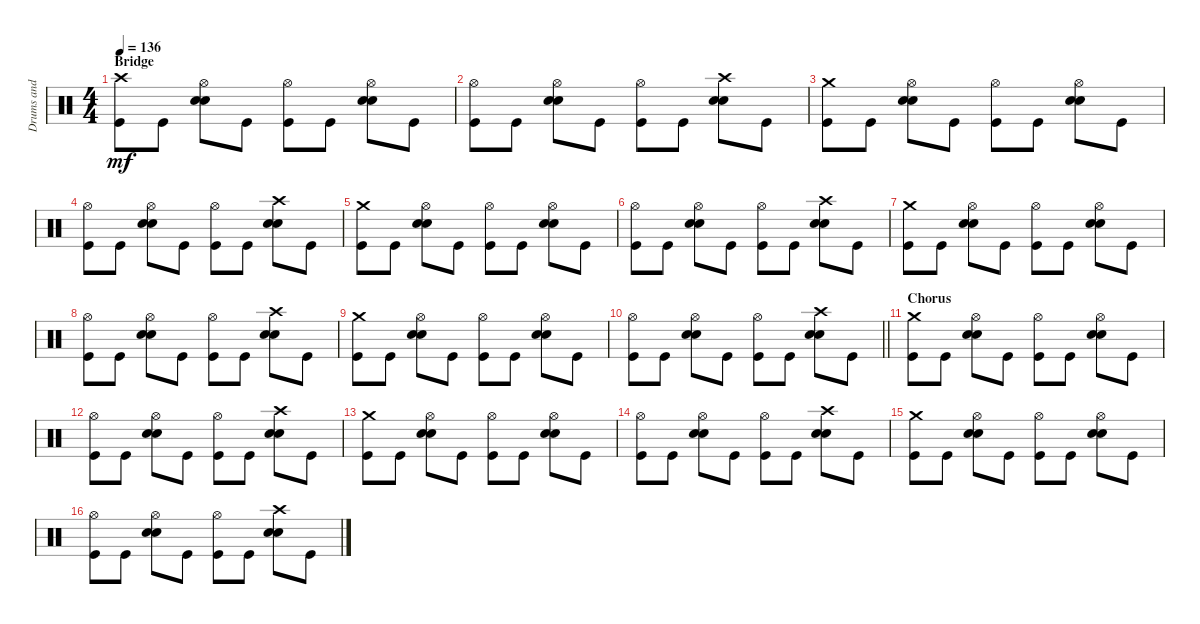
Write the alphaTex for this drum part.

\track ("Drums and Percussions" "Drums and ") {instrument percussion}
\staff {score}
\articulation defaults
\ts (4 4)
\section ("" "Bridge")
\tempo 136
\clef neutral
\ks c
("Crash high (hit)" "Kick (hit)").8{dy mf} "Kick (hit)".8 ("Hi-Hat (open)" "Electric Snare (hit)" "Electric Snare (hit)").8 "Kick (hit)".8 ("Hi-Hat (open)" "Kick (hit)").8 "Kick (hit)".8 ("Hi-Hat (open)" "Electric Snare (hit)" "Electric Snare (hit)").8 "Kick (hit)".8 |
("Hi-Hat (open)" "Kick (hit)").8 "Kick (hit)".8 ("Hi-Hat (open)" "Electric Snare (hit)" "Electric Snare (hit)").8 "Kick (hit)".8 ("Hi-Hat (open)" "Kick (hit)").8 "Kick (hit)".8 ("Crash high (hit)" "Electric Snare (hit)" "Electric Snare (hit)").8 "Kick (hit)".8 |
("Crash medium (hit)" "Kick (hit)").8 "Kick (hit)".8 ("Hi-Hat (open)" "Electric Snare (hit)" "Electric Snare (hit)").8 "Kick (hit)".8 ("Hi-Hat (open)" "Kick (hit)").8 "Kick (hit)".8 ("Hi-Hat (open)" "Electric Snare (hit)" "Electric Snare (hit)").8 "Kick (hit)".8 |
("Hi-Hat (open)" "Kick (hit)").8 "Kick (hit)".8 ("Hi-Hat (open)" "Electric Snare (hit)" "Electric Snare (hit)").8 "Kick (hit)".8 ("Hi-Hat (open)" "Kick (hit)").8 "Kick (hit)".8 ("Crash high (hit)" "Electric Snare (hit)" "Electric Snare (hit)").8 "Kick (hit)".8 |
("Crash medium (hit)" "Kick (hit)").8 "Kick (hit)".8 ("Hi-Hat (open)" "Electric Snare (hit)" "Electric Snare (hit)").8 "Kick (hit)".8 ("Hi-Hat (open)" "Kick (hit)").8 "Kick (hit)".8 ("Hi-Hat (open)" "Electric Snare (hit)" "Electric Snare (hit)").8 "Kick (hit)".8 |
("Hi-Hat (open)" "Kick (hit)").8 "Kick (hit)".8 ("Hi-Hat (open)" "Electric Snare (hit)" "Electric Snare (hit)").8 "Kick (hit)".8 ("Hi-Hat (open)" "Kick (hit)").8 "Kick (hit)".8 ("Crash high (hit)" "Electric Snare (hit)" "Electric Snare (hit)").8 "Kick (hit)".8 |
("Crash medium (hit)" "Kick (hit)").8 "Kick (hit)".8 ("Hi-Hat (open)" "Electric Snare (hit)" "Electric Snare (hit)").8 "Kick (hit)".8 ("Hi-Hat (open)" "Kick (hit)").8 "Kick (hit)".8 ("Hi-Hat (open)" "Electric Snare (hit)" "Electric Snare (hit)").8 "Kick (hit)".8 |
("Hi-Hat (open)" "Kick (hit)").8 "Kick (hit)".8 ("Hi-Hat (open)" "Electric Snare (hit)" "Electric Snare (hit)").8 "Kick (hit)".8 ("Hi-Hat (open)" "Kick (hit)").8 "Kick (hit)".8 ("Crash high (hit)" "Electric Snare (hit)" "Electric Snare (hit)").8 "Kick (hit)".8 |
("Crash medium (hit)" "Kick (hit)").8 "Kick (hit)".8 ("Hi-Hat (open)" "Electric Snare (hit)" "Electric Snare (hit)").8 "Kick (hit)".8 ("Hi-Hat (open)" "Kick (hit)").8 "Kick (hit)".8 ("Hi-Hat (open)" "Electric Snare (hit)" "Electric Snare (hit)").8 "Kick (hit)".8 |
\barLineRight lightlight
("Hi-Hat (open)" "Kick (hit)").8 "Kick (hit)".8 ("Hi-Hat (open)" "Electric Snare (hit)" "Electric Snare (hit)").8 "Kick (hit)".8 ("Hi-Hat (open)" "Kick (hit)").8 "Kick (hit)".8 ("Crash high (hit)" "Electric Snare (hit)" "Electric Snare (hit)").8 "Kick (hit)".8 |
\section ("" "Chorus")
("Crash medium (hit)" "Kick (hit)").8 "Kick (hit)".8 ("Hi-Hat (open)" "Electric Snare (hit)" "Electric Snare (hit)").8 "Kick (hit)".8 ("Hi-Hat (open)" "Kick (hit)").8 "Kick (hit)".8 ("Hi-Hat (open)" "Electric Snare (hit)" "Electric Snare (hit)").8 "Kick (hit)".8 |
("Hi-Hat (open)" "Kick (hit)").8 "Kick (hit)".8 ("Hi-Hat (open)" "Electric Snare (hit)" "Electric Snare (hit)").8 "Kick (hit)".8 ("Hi-Hat (open)" "Kick (hit)").8 "Kick (hit)".8 ("Crash high (hit)" "Electric Snare (hit)" "Electric Snare (hit)").8 "Kick (hit)".8 |
("Crash medium (hit)" "Kick (hit)").8 "Kick (hit)".8 ("Hi-Hat (open)" "Electric Snare (hit)" "Electric Snare (hit)").8 "Kick (hit)".8 ("Hi-Hat (open)" "Kick (hit)").8 "Kick (hit)".8 ("Hi-Hat (open)" "Electric Snare (hit)" "Electric Snare (hit)").8 "Kick (hit)".8 |
("Hi-Hat (open)" "Kick (hit)").8 "Kick (hit)".8 ("Hi-Hat (open)" "Electric Snare (hit)" "Electric Snare (hit)").8 "Kick (hit)".8 ("Hi-Hat (open)" "Kick (hit)").8 "Kick (hit)".8 ("Crash high (hit)" "Electric Snare (hit)" "Electric Snare (hit)").8 "Kick (hit)".8 |
("Crash medium (hit)" "Kick (hit)").8 "Kick (hit)".8 ("Hi-Hat (open)" "Electric Snare (hit)" "Electric Snare (hit)").8 "Kick (hit)".8 ("Hi-Hat (open)" "Kick (hit)").8 "Kick (hit)".8 ("Hi-Hat (open)" "Electric Snare (hit)" "Electric Snare (hit)").8 "Kick (hit)".8 |
("Hi-Hat (open)" "Kick (hit)").8 "Kick (hit)".8 ("Hi-Hat (open)" "Electric Snare (hit)" "Electric Snare (hit)").8 "Kick (hit)".8 ("Hi-Hat (open)" "Kick (hit)").8 "Kick (hit)".8 ("Crash high (hit)" "Electric Snare (hit)" "Electric Snare (hit)").8 "Kick (hit)".8
